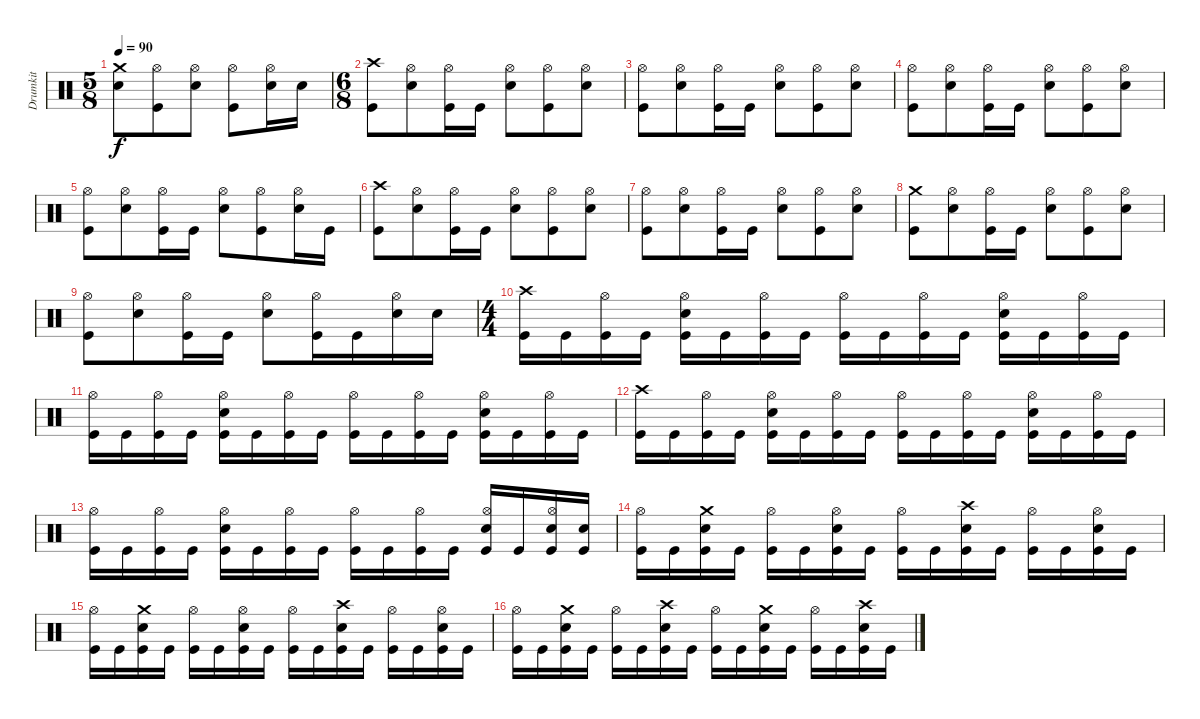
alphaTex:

\track ("Drumkit" "Drumkit") {instrument percussion}
\staff {score}
\articulation defaults
\ts (5 8)
\tempo 90
\clef neutral
\ks c
("Crash medium (hit)" "Snare (hit) 2").8{dy f} ("Hi-Hat (open)" "Kick (hit)").8 ("Hi-Hat (open)" "Snare (hit) 2").8 ("Hi-Hat (open)" "Kick (hit)").8 ("Hi-Hat (open)" "Snare (hit) 2").16 "Snare (hit) 2".16 |
\ts (6 8)
("Crash high (hit)" "Kick (hit)").8 ("Hi-Hat (open)" "Snare (hit) 2").8 ("Hi-Hat (open)" "Kick (hit)").16 "Kick (hit)".16 ("Hi-Hat (open)" "Snare (hit) 2").8 ("Hi-Hat (open)" "Kick (hit)").8 ("Hi-Hat (open)" "Snare (hit) 2").8 |
("Hi-Hat (open)" "Kick (hit)").8 ("Hi-Hat (open)" "Snare (hit) 2").8 ("Hi-Hat (open)" "Kick (hit)").16 "Kick (hit)".16 ("Hi-Hat (open)" "Snare (hit) 2").8 ("Hi-Hat (open)" "Kick (hit)").8 ("Hi-Hat (open)" "Snare (hit) 2").8 |
("Hi-Hat (open)" "Kick (hit)").8 ("Hi-Hat (open)" "Snare (hit) 2").8 ("Hi-Hat (open)" "Kick (hit)").16 "Kick (hit)".16 ("Hi-Hat (open)" "Snare (hit) 2").8 ("Hi-Hat (open)" "Kick (hit)").8 ("Hi-Hat (open)" "Snare (hit) 2").8 |
("Hi-Hat (open)" "Kick (hit)").8 ("Hi-Hat (open)" "Snare (hit) 2").8 ("Hi-Hat (open)" "Kick (hit)").16 "Kick (hit)".16 ("Hi-Hat (open)" "Snare (hit) 2").8 ("Hi-Hat (open)" "Kick (hit)").8 ("Hi-Hat (open)" "Snare (hit) 2").16 "Kick (hit)".16 |
("Crash high (hit)" "Kick (hit)").8 ("Hi-Hat (open)" "Snare (hit) 2").8 ("Hi-Hat (open)" "Kick (hit)").16 "Kick (hit)".16 ("Hi-Hat (open)" "Snare (hit) 2").8 ("Hi-Hat (open)" "Kick (hit)").8 ("Hi-Hat (open)" "Snare (hit) 2").8 |
("Hi-Hat (open)" "Kick (hit)").8 ("Hi-Hat (open)" "Snare (hit) 2").8 ("Hi-Hat (open)" "Kick (hit)").16 "Kick (hit)".16 ("Hi-Hat (open)" "Snare (hit) 2").8 ("Hi-Hat (open)" "Kick (hit)").8 ("Hi-Hat (open)" "Snare (hit) 2").8 |
("Crash medium (hit)" "Kick (hit)").8 ("Hi-Hat (open)" "Snare (hit) 2").8 ("Hi-Hat (open)" "Kick (hit)").16 "Kick (hit)".16 ("Hi-Hat (open)" "Snare (hit) 2").8 ("Hi-Hat (open)" "Kick (hit)").8 ("Hi-Hat (open)" "Snare (hit) 2").8 |
("Hi-Hat (open)" "Kick (hit)").8 ("Hi-Hat (open)" "Snare (hit) 2").8 ("Hi-Hat (open)" "Kick (hit)").16 "Kick (hit)".16 ("Hi-Hat (open)" "Snare (hit) 2").8 ("Hi-Hat (open)" "Kick (hit)").16 "Kick (hit)".16 ("Hi-Hat (open)" "Snare (hit) 2").16 "Snare (hit) 2".16 |
\ts (4 4)
("Crash high (hit)" "Kick (hit)").16 "Kick (hit)".16 ("Hi-Hat (open)" "Kick (hit)").16 "Kick (hit)".16 ("Hi-Hat (open)" "Snare (hit) 2" "Kick (hit)").16 "Kick (hit)".16 ("Hi-Hat (open)" "Kick (hit)").16 "Kick (hit)".16 ("Hi-Hat (open)" "Kick (hit)").16 "Kick (hit)".16 ("Hi-Hat (open)" "Kick (hit)").16 "Kick (hit)".16 ("Hi-Hat (open)" "Snare (hit) 2" "Kick (hit)").16 "Kick (hit)".16 ("Hi-Hat (open)" "Kick (hit)").16 "Kick (hit)".16 |
("Hi-Hat (open)" "Kick (hit)").16 "Kick (hit)".16 ("Hi-Hat (open)" "Kick (hit)").16 "Kick (hit)".16 ("Hi-Hat (open)" "Snare (hit) 2" "Kick (hit)").16 "Kick (hit)".16 ("Hi-Hat (open)" "Kick (hit)").16 "Kick (hit)".16 ("Hi-Hat (open)" "Kick (hit)").16 "Kick (hit)".16 ("Hi-Hat (open)" "Kick (hit)").16 "Kick (hit)".16 ("Hi-Hat (open)" "Snare (hit) 2" "Kick (hit)").16 "Kick (hit)".16 ("Hi-Hat (open)" "Kick (hit)").16 "Kick (hit)".16 |
("Crash high (hit)" "Kick (hit)").16 "Kick (hit)".16 ("Hi-Hat (open)" "Kick (hit)").16 "Kick (hit)".16 ("Hi-Hat (open)" "Snare (hit) 2" "Kick (hit)").16 "Kick (hit)".16 ("Hi-Hat (open)" "Kick (hit)").16 "Kick (hit)".16 ("Hi-Hat (open)" "Kick (hit)").16 "Kick (hit)".16 ("Hi-Hat (open)" "Kick (hit)").16 "Kick (hit)".16 ("Hi-Hat (open)" "Snare (hit) 2" "Kick (hit)").16 "Kick (hit)".16 ("Hi-Hat (open)" "Kick (hit)").16 "Kick (hit)".16 |
("Hi-Hat (open)" "Kick (hit)").16 "Kick (hit)".16 ("Hi-Hat (open)" "Kick (hit)").16 "Kick (hit)".16 ("Hi-Hat (open)" "Snare (hit) 2" "Kick (hit)").16 "Kick (hit)".16 ("Hi-Hat (open)" "Kick (hit)").16 "Kick (hit)".16 ("Hi-Hat (open)" "Kick (hit)").16 "Kick (hit)".16 ("Hi-Hat (open)" "Kick (hit)").16 "Kick (hit)".16 ("Hi-Hat (open)" "Snare (hit) 2" "Kick (hit)").16 "Kick (hit)".16 ("Hi-Hat (open)" "Snare (hit) 2" "Kick (hit)").16 ("Snare (hit) 2" "Kick (hit)").16 |
("Hi-Hat (open)" "Kick (hit)").16 "Kick (hit)".16 ("Crash medium (hit)" "Snare (hit) 2" "Kick (hit)").16 "Kick (hit)".16 ("Hi-Hat (open)" "Kick (hit)").16 "Kick (hit)".16 ("Hi-Hat (open)" "Snare (hit) 2" "Kick (hit)").16 "Kick (hit)".16 ("Hi-Hat (open)" "Kick (hit)").16 "Kick (hit)".16 ("Crash high (hit)" "Snare (hit) 2" "Kick (hit)").16 "Kick (hit)".16 ("Hi-Hat (open)" "Kick (hit)").16 "Kick (hit)".16 ("Hi-Hat (open)" "Snare (hit) 2" "Kick (hit)").16 "Kick (hit)".16 |
("Hi-Hat (open)" "Kick (hit)").16 "Kick (hit)".16 ("Crash medium (hit)" "Snare (hit) 2" "Kick (hit)").16 "Kick (hit)".16 ("Hi-Hat (open)" "Kick (hit)").16 "Kick (hit)".16 ("Hi-Hat (open)" "Snare (hit) 2" "Kick (hit)").16 "Kick (hit)".16 ("Hi-Hat (open)" "Kick (hit)").16 "Kick (hit)".16 ("Crash high (hit)" "Snare (hit) 2" "Kick (hit)").16 "Kick (hit)".16 ("Hi-Hat (open)" "Kick (hit)").16 "Kick (hit)".16 ("Hi-Hat (open)" "Snare (hit) 2" "Kick (hit)").16 "Kick (hit)".16 |
("Hi-Hat (open)" "Kick (hit)").16 "Kick (hit)".16 ("Crash medium (hit)" "Snare (hit) 2" "Kick (hit)").16 "Kick (hit)".16 ("Hi-Hat (open)" "Kick (hit)").16 "Kick (hit)".16 ("Crash high (hit)" "Snare (hit) 2" "Kick (hit)").16 "Kick (hit)".16 ("Hi-Hat (open)" "Kick (hit)").16 "Kick (hit)".16 ("Crash medium (hit)" "Snare (hit) 2" "Kick (hit)").16 "Kick (hit)".16 ("Hi-Hat (open)" "Kick (hit)").16 "Kick (hit)".16 ("Crash high (hit)" "Snare (hit) 2" "Kick (hit)").16 "Kick (hit)".16
